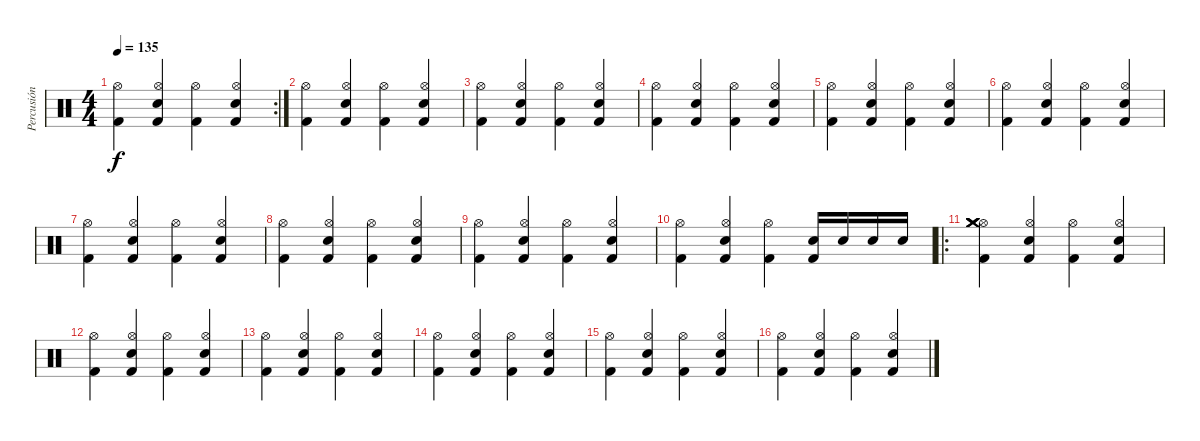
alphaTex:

\track ("Percusión" "Percusión") {instrument percussion}
\staff {score}
\articulation defaults
\rc 2
\ts (4 4)
\tempo 135
\clef neutral
\ks c
("Kick (hit) 2" "Hi-Hat (open)").4{dy f} ("Kick (hit) 2" "Electric Snare (hit)" "Hi-Hat (open)").4 ("Kick (hit) 2" "Hi-Hat (open)").4 ("Kick (hit) 2" "Electric Snare (hit)" "Hi-Hat (open)").4 |
("Kick (hit) 2" "Hi-Hat (open)").4 ("Kick (hit) 2" "Electric Snare (hit)" "Hi-Hat (open)").4 ("Kick (hit) 2" "Hi-Hat (open)").4 ("Kick (hit) 2" "Electric Snare (hit)" "Hi-Hat (open)").4 |
("Kick (hit) 2" "Hi-Hat (open)").4 ("Kick (hit) 2" "Electric Snare (hit)" "Hi-Hat (open)").4 ("Kick (hit) 2" "Hi-Hat (open)").4 ("Kick (hit) 2" "Electric Snare (hit)" "Hi-Hat (open)").4 |
("Kick (hit) 2" "Hi-Hat (open)").4 ("Kick (hit) 2" "Electric Snare (hit)" "Hi-Hat (open)").4 ("Kick (hit) 2" "Hi-Hat (open)").4 ("Kick (hit) 2" "Electric Snare (hit)" "Hi-Hat (open)").4 |
("Kick (hit) 2" "Hi-Hat (open)").4 ("Kick (hit) 2" "Electric Snare (hit)" "Hi-Hat (open)").4 ("Kick (hit) 2" "Hi-Hat (open)").4 ("Kick (hit) 2" "Electric Snare (hit)" "Hi-Hat (open)").4 |
("Kick (hit) 2" "Hi-Hat (open)").4 ("Kick (hit) 2" "Electric Snare (hit)" "Hi-Hat (open)").4 ("Kick (hit) 2" "Hi-Hat (open)").4 ("Kick (hit) 2" "Electric Snare (hit)" "Hi-Hat (open)").4 |
("Kick (hit) 2" "Hi-Hat (open)").4 ("Kick (hit) 2" "Electric Snare (hit)" "Hi-Hat (open)").4 ("Kick (hit) 2" "Hi-Hat (open)").4 ("Kick (hit) 2" "Electric Snare (hit)" "Hi-Hat (open)").4 |
("Kick (hit) 2" "Hi-Hat (open)").4 ("Kick (hit) 2" "Electric Snare (hit)" "Hi-Hat (open)").4 ("Kick (hit) 2" "Hi-Hat (open)").4 ("Kick (hit) 2" "Electric Snare (hit)" "Hi-Hat (open)").4 |
("Kick (hit) 2" "Hi-Hat (open)").4 ("Kick (hit) 2" "Electric Snare (hit)" "Hi-Hat (open)").4 ("Kick (hit) 2" "Hi-Hat (open)").4 ("Kick (hit) 2" "Electric Snare (hit)" "Hi-Hat (open)").4 |
("Kick (hit) 2" "Hi-Hat (open)").4 ("Kick (hit) 2" "Electric Snare (hit)" "Hi-Hat (open)").4 ("Kick (hit) 2" "Hi-Hat (open)").4 ("Kick (hit) 2" "Electric Snare (hit)").16 "Electric Snare (hit)".16 "Electric Snare (hit)".16 "Electric Snare (hit)".16 |
\ro
("Kick (hit) 2" "Hi-Hat (open)" "Crash medium (hit)" "Crash medium (hit)" "Crash medium (hit)").4 ("Kick (hit) 2" "Electric Snare (hit)" "Hi-Hat (open)").4 ("Kick (hit) 2" "Hi-Hat (open)").4 ("Kick (hit) 2" "Electric Snare (hit)" "Hi-Hat (open)").4 |
("Kick (hit) 2" "Hi-Hat (open)").4 ("Kick (hit) 2" "Electric Snare (hit)" "Hi-Hat (open)").4 ("Kick (hit) 2" "Hi-Hat (open)").4 ("Kick (hit) 2" "Electric Snare (hit)" "Hi-Hat (open)").4 |
("Kick (hit) 2" "Hi-Hat (open)").4 ("Kick (hit) 2" "Electric Snare (hit)" "Hi-Hat (open)").4 ("Kick (hit) 2" "Hi-Hat (open)").4 ("Kick (hit) 2" "Electric Snare (hit)" "Hi-Hat (open)").4 |
("Kick (hit) 2" "Hi-Hat (open)").4 ("Kick (hit) 2" "Electric Snare (hit)" "Hi-Hat (open)").4 ("Kick (hit) 2" "Hi-Hat (open)").4 ("Kick (hit) 2" "Electric Snare (hit)" "Hi-Hat (open)").4 |
("Kick (hit) 2" "Hi-Hat (open)").4 ("Kick (hit) 2" "Electric Snare (hit)" "Hi-Hat (open)").4 ("Kick (hit) 2" "Hi-Hat (open)").4 ("Kick (hit) 2" "Electric Snare (hit)" "Hi-Hat (open)").4 |
("Kick (hit) 2" "Hi-Hat (open)").4 ("Kick (hit) 2" "Electric Snare (hit)" "Hi-Hat (open)").4 ("Kick (hit) 2" "Hi-Hat (open)").4 ("Kick (hit) 2" "Electric Snare (hit)" "Hi-Hat (open)").4
